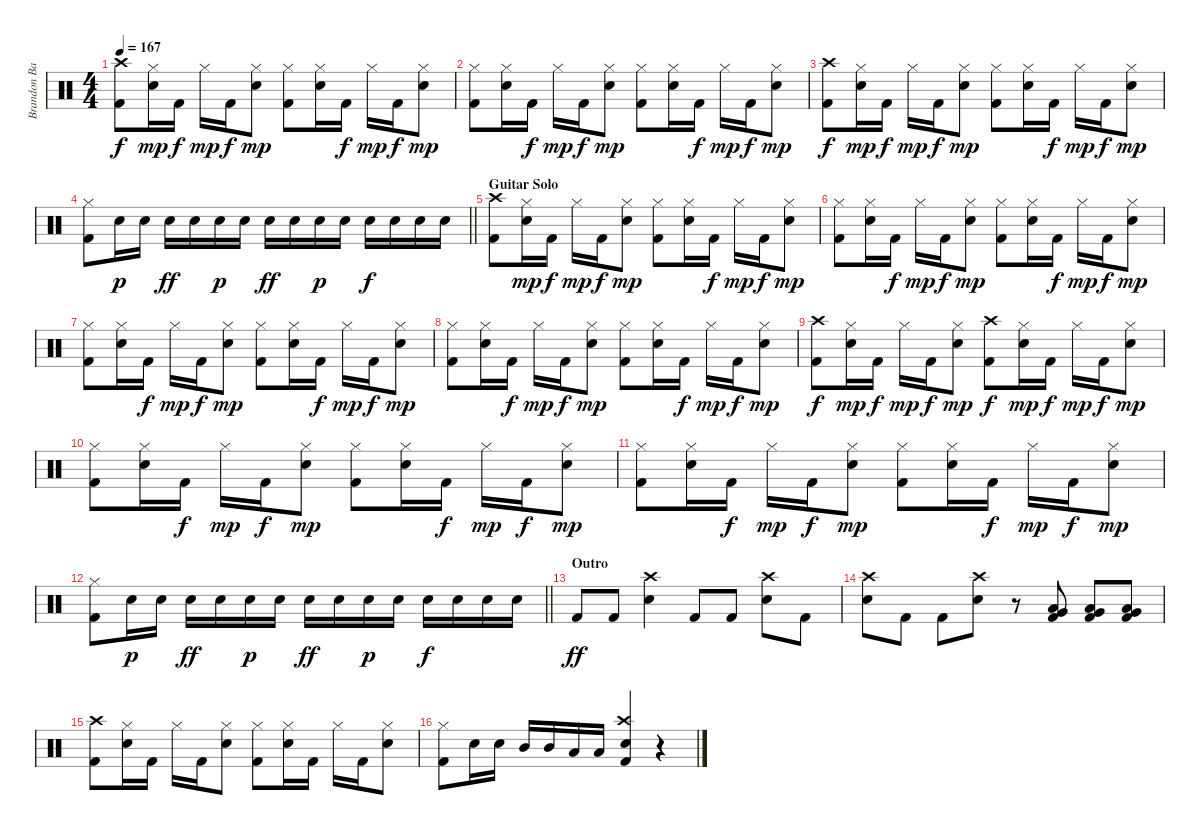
\track ("Brandon Barnes" "Brandon Ba") {instrument percussion}
\staff {score}
\articulation defaults
\ts (4 4)
\tempo 167
\clef neutral
\ks c
("Kick (hit) 2" "Crash high (hit)").8{dy f} ("Snare (hit) 2" "Hi-Hat (closed)").16{dy mp} "Kick (hit) 2".16{dy f} "Hi-Hat (closed)".16{dy mp} "Kick (hit) 2".16{dy f} ("Snare (hit) 2" "Hi-Hat (closed)").8{dy mp} ("Kick (hit) 2" "Hi-Hat (closed)").8 ("Snare (hit) 2" "Hi-Hat (closed)").16 "Kick (hit) 2".16{dy f} "Hi-Hat (closed)".16{dy mp} "Kick (hit) 2".16{dy f} ("Snare (hit) 2" "Hi-Hat (closed)").8{dy mp} |
("Kick (hit) 2" "Hi-Hat (closed)").8 ("Snare (hit) 2" "Hi-Hat (closed)").16 "Kick (hit) 2".16{dy f} "Hi-Hat (closed)".16{dy mp} "Kick (hit) 2".16{dy f} ("Snare (hit) 2" "Hi-Hat (closed)").8{dy mp} ("Kick (hit) 2" "Hi-Hat (closed)").8 ("Snare (hit) 2" "Hi-Hat (closed)").16 "Kick (hit) 2".16{dy f} "Hi-Hat (closed)".16{dy mp} "Kick (hit) 2".16{dy f} ("Snare (hit) 2" "Hi-Hat (closed)").8{dy mp} |
("Kick (hit) 2" "Crash high (hit)").8{dy f} ("Snare (hit) 2" "Hi-Hat (closed)").16{dy mp} "Kick (hit) 2".16{dy f} "Hi-Hat (closed)".16{dy mp} "Kick (hit) 2".16{dy f} ("Snare (hit) 2" "Hi-Hat (closed)").8{dy mp} ("Kick (hit) 2" "Hi-Hat (closed)").8 ("Snare (hit) 2" "Hi-Hat (closed)").16 "Kick (hit) 2".16{dy f} "Hi-Hat (closed)".16{dy mp} "Kick (hit) 2".16{dy f} ("Snare (hit) 2" "Hi-Hat (closed)").8{dy mp} |
\barLineRight lightlight
("Kick (hit) 2" "Hi-Hat (closed)").8 "Snare (hit) 2".16{dy p} "Snare (hit) 2".16 "Snare (hit) 2".16{dy ff} "Snare (hit) 2".16 "Snare (hit) 2".16{dy p} "Snare (hit) 2".16 "Snare (hit) 2".16{dy ff} "Snare (hit) 2".16 "Snare (hit) 2".16{dy p} "Snare (hit) 2".16 "Snare (hit) 2".16{dy f} "Snare (hit) 2".16 "Snare (hit) 2".16 "Snare (hit) 2".16 |
\section ("" "Guitar Solo")
("Kick (hit) 2" "Crash high (hit)").8 ("Snare (hit) 2" "Hi-Hat (closed)").16{dy mp} "Kick (hit) 2".16{dy f} "Hi-Hat (closed)".16{dy mp} "Kick (hit) 2".16{dy f} ("Snare (hit) 2" "Hi-Hat (closed)").8{dy mp} ("Kick (hit) 2" "Hi-Hat (closed)").8 ("Snare (hit) 2" "Hi-Hat (closed)").16 "Kick (hit) 2".16{dy f} "Hi-Hat (closed)".16{dy mp} "Kick (hit) 2".16{dy f} ("Snare (hit) 2" "Hi-Hat (closed)").8{dy mp} |
("Kick (hit) 2" "Hi-Hat (closed)").8 ("Snare (hit) 2" "Hi-Hat (closed)").16 "Kick (hit) 2".16{dy f} "Hi-Hat (closed)".16{dy mp} "Kick (hit) 2".16{dy f} ("Snare (hit) 2" "Hi-Hat (closed)").8{dy mp} ("Kick (hit) 2" "Hi-Hat (closed)").8 ("Snare (hit) 2" "Hi-Hat (closed)").16 "Kick (hit) 2".16{dy f} "Hi-Hat (closed)".16{dy mp} "Kick (hit) 2".16{dy f} ("Snare (hit) 2" "Hi-Hat (closed)").8{dy mp} |
("Kick (hit) 2" "Hi-Hat (closed)").8 ("Snare (hit) 2" "Hi-Hat (closed)").16 "Kick (hit) 2".16{dy f} "Hi-Hat (closed)".16{dy mp} "Kick (hit) 2".16{dy f} ("Snare (hit) 2" "Hi-Hat (closed)").8{dy mp} ("Kick (hit) 2" "Hi-Hat (closed)").8 ("Snare (hit) 2" "Hi-Hat (closed)").16 "Kick (hit) 2".16{dy f} "Hi-Hat (closed)".16{dy mp} "Kick (hit) 2".16{dy f} ("Snare (hit) 2" "Hi-Hat (closed)").8{dy mp} |
("Kick (hit) 2" "Hi-Hat (closed)").8 ("Snare (hit) 2" "Hi-Hat (closed)").16 "Kick (hit) 2".16{dy f} "Hi-Hat (closed)".16{dy mp} "Kick (hit) 2".16{dy f} ("Snare (hit) 2" "Hi-Hat (closed)").8{dy mp} ("Kick (hit) 2" "Hi-Hat (closed)").8 ("Snare (hit) 2" "Hi-Hat (closed)").16 "Kick (hit) 2".16{dy f} "Hi-Hat (closed)".16{dy mp} "Kick (hit) 2".16{dy f} ("Snare (hit) 2" "Hi-Hat (closed)").8{dy mp} |
("Kick (hit) 2" "Crash high (hit)").8{dy f} ("Snare (hit) 2" "Hi-Hat (closed)").16{dy mp} "Kick (hit) 2".16{dy f} "Hi-Hat (closed)".16{dy mp} "Kick (hit) 2".16{dy f} ("Snare (hit) 2" "Hi-Hat (closed)").8{dy mp} ("Kick (hit) 2" "Crash high (hit)").8{dy f} ("Snare (hit) 2" "Hi-Hat (closed)").16{dy mp} "Kick (hit) 2".16{dy f} "Hi-Hat (closed)".16{dy mp} "Kick (hit) 2".16{dy f} ("Snare (hit) 2" "Hi-Hat (closed)").8{dy mp} |
("Kick (hit) 2" "Hi-Hat (closed)").8 ("Snare (hit) 2" "Hi-Hat (closed)").16 "Kick (hit) 2".16{dy f} "Hi-Hat (closed)".16{dy mp} "Kick (hit) 2".16{dy f} ("Snare (hit) 2" "Hi-Hat (closed)").8{dy mp} ("Kick (hit) 2" "Hi-Hat (closed)").8 ("Snare (hit) 2" "Hi-Hat (closed)").16 "Kick (hit) 2".16{dy f} "Hi-Hat (closed)".16{dy mp} "Kick (hit) 2".16{dy f} ("Snare (hit) 2" "Hi-Hat (closed)").8{dy mp} |
("Kick (hit) 2" "Hi-Hat (closed)").8 ("Snare (hit) 2" "Hi-Hat (closed)").16 "Kick (hit) 2".16{dy f} "Hi-Hat (closed)".16{dy mp} "Kick (hit) 2".16{dy f} ("Snare (hit) 2" "Hi-Hat (closed)").8{dy mp} ("Kick (hit) 2" "Hi-Hat (closed)").8 ("Snare (hit) 2" "Hi-Hat (closed)").16 "Kick (hit) 2".16{dy f} "Hi-Hat (closed)".16{dy mp} "Kick (hit) 2".16{dy f} ("Snare (hit) 2" "Hi-Hat (closed)").8{dy mp} |
\barLineRight lightlight
("Kick (hit) 2" "Hi-Hat (closed)").8 "Snare (hit) 2".16{dy p} "Snare (hit) 2".16 "Snare (hit) 2".16{dy ff} "Snare (hit) 2".16 "Snare (hit) 2".16{dy p} "Snare (hit) 2".16 "Snare (hit) 2".16{dy ff} "Snare (hit) 2".16 "Snare (hit) 2".16{dy p} "Snare (hit) 2".16 "Snare (hit) 2".16{dy f} "Snare (hit) 2".16 "Snare (hit) 2".16 "Snare (hit) 2".16 |
\section ("" "Outro")
"Kick (hit) 2".8{dy ff} "Kick (hit) 2".8 ("Snare (hit) 2" "Crash high (hit)").4 "Kick (hit) 2".8 "Kick (hit) 2".8 ("Snare (hit) 2" "Crash high (hit)").8 "Kick (hit) 2".8 |
("Snare (hit) 2" "Crash high (hit)").8 "Kick (hit) 2".8 "Kick (hit) 2".8 ("Snare (hit) 2" "Crash high (hit)").8 r.8 ("Low Floor Tom (hit)" "Very Low Tom (hit)" "Kick (hit) 2").8 ("Low Floor Tom (hit)" "Very Low Tom (hit)" "Kick (hit) 2").8 ("Low Floor Tom (hit)" "Very Low Tom (hit)" "Kick (hit) 2").8 |
("Kick (hit) 2" "Crash high (hit)").8 ("Snare (hit) 2" "Hi-Hat (closed)").16 "Kick (hit) 2".16 "Hi-Hat (closed)".16 "Kick (hit) 2".16 ("Snare (hit) 2" "Hi-Hat (closed)").8 ("Kick (hit) 2" "Hi-Hat (closed)").8 ("Snare (hit) 2" "Hi-Hat (closed)").16 "Kick (hit) 2".16 "Hi-Hat (closed)".16 "Kick (hit) 2".16 ("Snare (hit) 2" "Hi-Hat (closed)").8 |
("Kick (hit) 2" "Hi-Hat (closed)").8 "Snare (hit) 2".16 "Snare (hit) 2".16 "Mid Tom (hit)".16 "Mid Tom (hit)".16 "Low Tom (hit)".16 "Low Tom (hit)".16 ("Snare (hit) 2" "Crash high (hit)" "Kick (hit) 2").4 r.4
